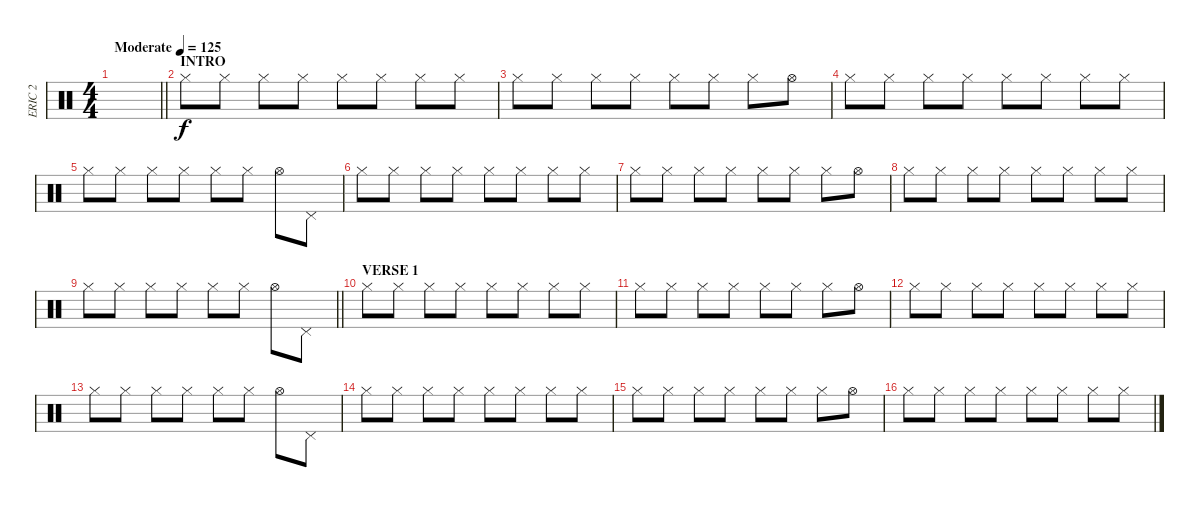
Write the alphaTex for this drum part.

\track ("ERIC 2" "ERIC 2") {instrument percussion}
\staff {score}
\articulation defaults
\ts (4 4)
\tempo (125 "Moderate")
\clef neutral
\barLineRight lightlight
\ks c
|
\section ("" "INTRO")
"Hi-Hat (closed)".8 "Hi-Hat (closed)".8 "Hi-Hat (closed)".8 "Hi-Hat (closed)".8 "Hi-Hat (closed)".8 "Hi-Hat (closed)".8 "Hi-Hat (closed)".8 "Hi-Hat (closed)".8 |
"Hi-Hat (closed)".8 "Hi-Hat (closed)".8 "Hi-Hat (closed)".8 "Hi-Hat (closed)".8 "Hi-Hat (closed)".8 "Hi-Hat (closed)".8 "Hi-Hat (closed)".8 "Hi-Hat (open)".8 |
"Hi-Hat (closed)".8 "Hi-Hat (closed)".8 "Hi-Hat (closed)".8 "Hi-Hat (closed)".8 "Hi-Hat (closed)".8 "Hi-Hat (closed)".8 "Hi-Hat (closed)".8 "Hi-Hat (closed)".8 |
"Hi-Hat (closed)".8 "Hi-Hat (closed)".8 "Hi-Hat (closed)".8 "Hi-Hat (closed)".8 "Hi-Hat (closed)".8 "Hi-Hat (closed)".8 "Hi-Hat (open)".8 "Pedal Hi-Hat (hit)".8 |
"Hi-Hat (closed)".8 "Hi-Hat (closed)".8 "Hi-Hat (closed)".8 "Hi-Hat (closed)".8 "Hi-Hat (closed)".8 "Hi-Hat (closed)".8 "Hi-Hat (closed)".8 "Hi-Hat (closed)".8 |
"Hi-Hat (closed)".8 "Hi-Hat (closed)".8 "Hi-Hat (closed)".8 "Hi-Hat (closed)".8 "Hi-Hat (closed)".8 "Hi-Hat (closed)".8 "Hi-Hat (closed)".8 "Hi-Hat (open)".8 |
"Hi-Hat (closed)".8 "Hi-Hat (closed)".8 "Hi-Hat (closed)".8 "Hi-Hat (closed)".8 "Hi-Hat (closed)".8 "Hi-Hat (closed)".8 "Hi-Hat (closed)".8 "Hi-Hat (closed)".8 |
\barLineRight lightlight "Hi-Hat (closed)".8 "Hi-Hat (closed)".8 "Hi-Hat (closed)".8 "Hi-Hat (closed)".8 "Hi-Hat (closed)".8 "Hi-Hat (closed)".8 "Hi-Hat (open)".8 "Pedal Hi-Hat (hit)".8
|
\section ("" "VERSE 1")
"Hi-Hat (closed)".8 "Hi-Hat (closed)".8 "Hi-Hat (closed)".8 "Hi-Hat (closed)".8 "Hi-Hat (closed)".8 "Hi-Hat (closed)".8 "Hi-Hat (closed)".8 "Hi-Hat (closed)".8 |
"Hi-Hat (closed)".8 "Hi-Hat (closed)".8 "Hi-Hat (closed)".8 "Hi-Hat (closed)".8 "Hi-Hat (closed)".8 "Hi-Hat (closed)".8 "Hi-Hat (closed)".8 "Hi-Hat (open)".8 |
"Hi-Hat (closed)".8 "Hi-Hat (closed)".8 "Hi-Hat (closed)".8 "Hi-Hat (closed)".8 "Hi-Hat (closed)".8 "Hi-Hat (closed)".8 "Hi-Hat (closed)".8 "Hi-Hat (closed)".8 |
"Hi-Hat (closed)".8 "Hi-Hat (closed)".8 "Hi-Hat (closed)".8 "Hi-Hat (closed)".8 "Hi-Hat (closed)".8 "Hi-Hat (closed)".8 "Hi-Hat (open)".8 "Pedal Hi-Hat (hit)".8 |
"Hi-Hat (closed)".8 "Hi-Hat (closed)".8 "Hi-Hat (closed)".8 "Hi-Hat (closed)".8 "Hi-Hat (closed)".8 "Hi-Hat (closed)".8 "Hi-Hat (closed)".8 "Hi-Hat (closed)".8 |
"Hi-Hat (closed)".8 "Hi-Hat (closed)".8 "Hi-Hat (closed)".8 "Hi-Hat (closed)".8 "Hi-Hat (closed)".8 "Hi-Hat (closed)".8 "Hi-Hat (closed)".8 "Hi-Hat (open)".8 |
"Hi-Hat (closed)".8 "Hi-Hat (closed)".8 "Hi-Hat (closed)".8 "Hi-Hat (closed)".8 "Hi-Hat (closed)".8 "Hi-Hat (closed)".8 "Hi-Hat (closed)".8 "Hi-Hat (closed)".8
